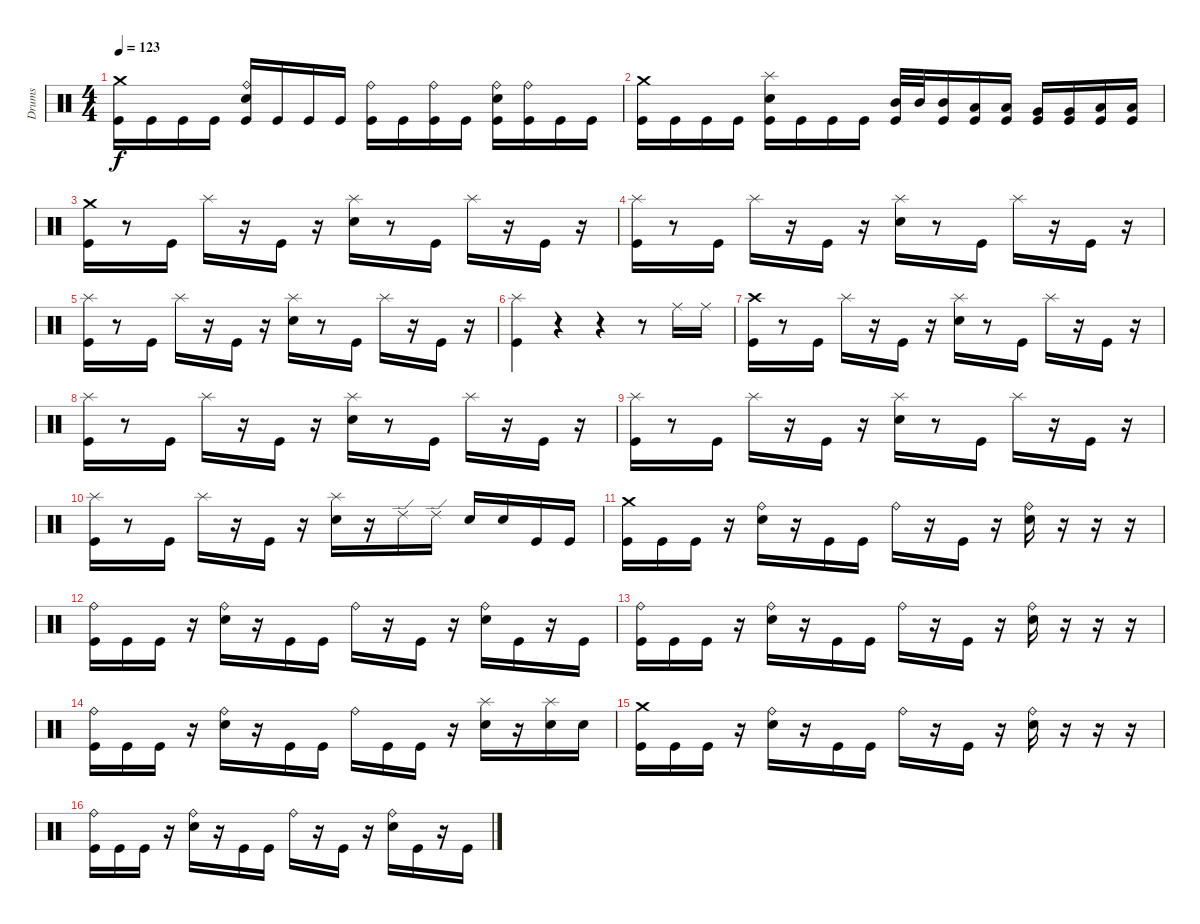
\track ("Drums" "Drums") {instrument percussion}
\staff {score}
\articulation defaults
\ts (4 4)
\tempo 123
\clef neutral
\ks c
("Crash medium (hit)" "Kick (hit)").16{dy f} "Kick (hit)".16 "Kick (hit)".16 "Kick (hit)".16 ("Ride (bell)" "Electric Snare (hit)" "Kick (hit)").16 "Kick (hit)".16 "Kick (hit)".16 "Kick (hit)".16 ("Ride (bell)" "Kick (hit)").16 "Kick (hit)".16 ("Ride (bell)" "Kick (hit)").16 "Kick (hit)".16 ("Ride (bell)" "Electric Snare (hit)" "Kick (hit)").16 ("Ride (bell)" "Kick (hit)").16 "Kick (hit)".16 "Kick (hit)".16 |
("Crash medium (hit)" "Kick (hit)").16 "Kick (hit)".16 "Kick (hit)".16 "Kick (hit)".16 ("Splash (hit)" "Electric Snare (hit)" "Kick (hit)").16 "Kick (hit)".16 "Kick (hit)".16 "Kick (hit)".16 ("Mid Tom (hit)" "Kick (hit)").32 "Mid Tom (hit)".32 ("Mid Tom (hit)" "Kick (hit)").16 ("Low Tom (hit)" "Kick (hit)").16 ("Low Tom (hit)" "Kick (hit)").16 ("Very Low Tom (hit)" "Kick (hit)").16 ("Very Low Tom (hit)" "Kick (hit)").16 ("Low Floor Tom (hit)" "Kick (hit)").16 ("Low Floor Tom (hit)" "Kick (hit)").16 |
("Crash medium (hit)" "Kick (hit)").16 r.8 "Kick (hit)".16 "Splash (hit)".16 r.16 "Kick (hit)".16 r.16 ("Splash (hit)" "Electric Snare (hit)").16 r.8 "Kick (hit)".16 "Splash (hit)".16 r.16 "Kick (hit)".16 r.16 |
("Splash (hit)" "Kick (hit)").16 r.8 "Kick (hit)".16 "Splash (hit)".16 r.16 "Kick (hit)".16 r.16 ("Splash (hit)" "Electric Snare (hit)").16 r.8 "Kick (hit)".16 "Splash (hit)".16 r.16 "Kick (hit)".16 r.16 |
("Splash (hit)" "Kick (hit)").16 r.8 "Kick (hit)".16 "Splash (hit)".16 r.16 "Kick (hit)".16 r.16 ("Splash (hit)" "Electric Snare (hit)").16 r.8 "Kick (hit)".16 "Splash (hit)".16 r.16 "Kick (hit)".16 r.16 |
("Splash (hit)" "Kick (hit)").4 r.4 r.4 r.8 "Ride (middle)".16 "Ride (middle)".16 |
("Crash high (hit)" "Kick (hit)").16 r.8 "Kick (hit)".16 "Splash (hit)".16 r.16 "Kick (hit)".16 r.16 ("Splash (hit)" "Electric Snare (hit)").16 r.8 "Kick (hit)".16 "Splash (hit)".16 r.16 "Kick (hit)".16 r.16 |
("Splash (hit)" "Kick (hit)").16 r.8 "Kick (hit)".16 "Splash (hit)".16 r.16 "Kick (hit)".16 r.16 ("Splash (hit)" "Electric Snare (hit)").16 r.8 "Kick (hit)".16 "Splash (hit)".16 r.16 "Kick (hit)".16 r.16 |
("Splash (hit)" "Kick (hit)").16 r.8 "Kick (hit)".16 "Splash (hit)".16 r.16 "Kick (hit)".16 r.16 ("Splash (hit)" "Electric Snare (hit)").16 r.8 "Kick (hit)".16 "Splash (hit)".16 r.16 "Kick (hit)".16 r.16 |
("Splash (hit)" "Kick (hit)").16 r.8 "Kick (hit)".16 "Splash (hit)".16 r.16 "Kick (hit)".16 r.16 ("Splash (hit)" "Electric Snare (hit)").16 r.16 "Ride (edge) 2".16 "Ride (edge) 2".16 "Electric Snare (hit)".16 "Electric Snare (hit)".16 "Kick (hit)".16 "Kick (hit)".16 |
("Crash medium (hit)" "Kick (hit)").16 "Kick (hit)".16 "Kick (hit)".16 r.16 ("Ride (bell)" "Electric Snare (hit)").16 r.16 "Kick (hit)".16 "Kick (hit)".16 "Ride (bell)".16 r.16 "Kick (hit)".16 r.16 ("Ride (bell)" "Electric Snare (hit)").16 r.16 r.16 r.16 |
("Ride (bell)" "Kick (hit)").16 "Kick (hit)".16 "Kick (hit)".16 r.16 ("Ride (bell)" "Electric Snare (hit)").16 r.16 "Kick (hit)".16 "Kick (hit)".16 "Ride (bell)".16 r.16 "Kick (hit)".16 r.16 ("Ride (bell)" "Electric Snare (hit)").16 "Kick (hit)".16 r.16 "Kick (hit)".16 |
("Ride (bell)" "Kick (hit)").16 "Kick (hit)".16 "Kick (hit)".16 r.16 ("Ride (bell)" "Electric Snare (hit)").16 r.16 "Kick (hit)".16 "Kick (hit)".16 "Ride (bell)".16 r.16 "Kick (hit)".16 r.16 ("Ride (bell)" "Electric Snare (hit)").16 r.16 r.16 r.16 |
("Ride (bell)" "Kick (hit)").16 "Kick (hit)".16 "Kick (hit)".16 r.16 ("Ride (bell)" "Electric Snare (hit)").16 r.16 "Kick (hit)".16 "Kick (hit)".16 "Ride (bell)".16 "Kick (hit)".16 "Kick (hit)".16 r.16 ("Splash (hit)" "Electric Snare (hit)").16 r.16 ("Splash (hit)" "Electric Snare (hit)").16 "Electric Snare (hit)".16 |
("Crash medium (hit)" "Kick (hit)").16 "Kick (hit)".16 "Kick (hit)".16 r.16 ("Ride (bell)" "Electric Snare (hit)").16 r.16 "Kick (hit)".16 "Kick (hit)".16 "Ride (bell)".16 r.16 "Kick (hit)".16 r.16 ("Ride (bell)" "Electric Snare (hit)").16 r.16 r.16 r.16 |
("Ride (bell)" "Kick (hit)").16 "Kick (hit)".16 "Kick (hit)".16 r.16 ("Ride (bell)" "Electric Snare (hit)").16 r.16 "Kick (hit)".16 "Kick (hit)".16 "Ride (bell)".16 r.16 "Kick (hit)".16 r.16 ("Ride (bell)" "Electric Snare (hit)").16 "Kick (hit)".16 r.16 "Kick (hit)".16
